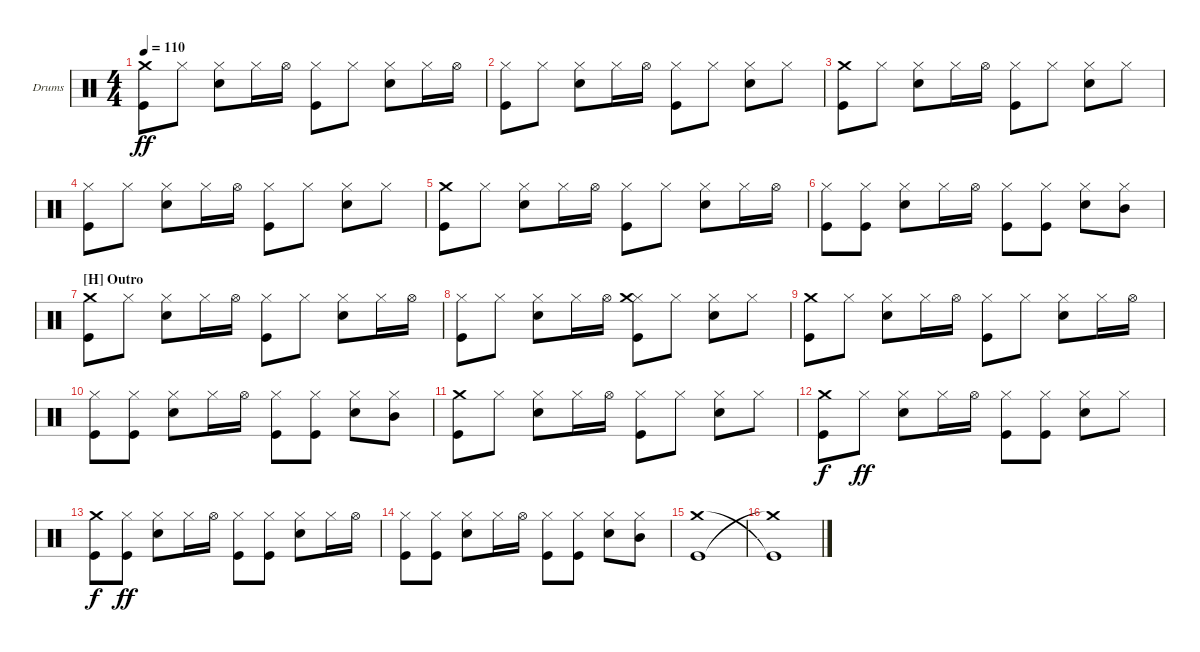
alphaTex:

\bracketExtendMode groupsimilarinstruments
\firstSystemTrackNameOrientation horizontal
\otherSystemsTrackNameOrientation horizontal
\track ("Drum Kit" "Drums") {instrument percussion}
\staff {score}
\articulation defaults
\ts (4 4)
\tempo 110
\clef neutral
\scale
0.333333
\ks c
("Crash medium (hit)" "Kick (hit)").8{dy ff} "Hi-Hat (closed)".8 ("Hi-Hat (closed)" "Snare (hit) 2").8 "Hi-Hat (closed)".16 "Hi-Hat (open)".16 ("Hi-Hat (closed)" "Kick (hit)").8 "Hi-Hat (closed)".8 ("Hi-Hat (closed)" "Snare (hit) 2").8 "Hi-Hat (closed)".16 "Hi-Hat (open)".16 |
\scale
0.333333 ("Hi-Hat (closed)" "Kick (hit)").8 "Hi-Hat (closed)".8 ("Hi-Hat (closed)" "Snare (hit) 2").8 "Hi-Hat (closed)".16 "Hi-Hat (open)".16 ("Hi-Hat (closed)" "Kick (hit)").8 "Hi-Hat (closed)".8 ("Hi-Hat (closed)" "Snare (hit) 2").8 "Hi-Hat (closed)".8 |
\scale
0.333333 ("Crash medium (hit)" "Kick (hit)").8 "Hi-Hat (closed)".8 ("Hi-Hat (closed)" "Snare (hit) 2").8 "Hi-Hat (closed)".16 "Hi-Hat (open)".16 ("Hi-Hat (closed)" "Kick (hit)").8 "Hi-Hat (closed)".8 ("Hi-Hat (closed)" "Snare (hit) 2").8 "Hi-Hat (closed)".8 |
\scale
0.333333 ("Hi-Hat (closed)" "Kick (hit)").8 "Hi-Hat (closed)".8 ("Hi-Hat (closed)" "Snare (hit) 2").8 "Hi-Hat (closed)".16 "Hi-Hat (open)".16 ("Hi-Hat (closed)" "Kick (hit)").8 "Hi-Hat (closed)".8 ("Hi-Hat (closed)" "Snare (hit) 2").8 "Hi-Hat (closed)".8 |
\scale
0.333333 ("Crash medium (hit)" "Kick (hit)").8 "Hi-Hat (closed)".8 ("Hi-Hat (closed)" "Snare (hit) 2").8 "Hi-Hat (closed)".16 "Hi-Hat (open)".16 ("Hi-Hat (closed)" "Kick (hit)").8 "Hi-Hat (closed)".8 ("Hi-Hat (closed)" "Snare (hit) 2").8 "Hi-Hat (closed)".16 "Hi-Hat (open)".16 |
\scale
0.333333 ("Hi-Hat (closed)" "Kick (hit)").8 ("Hi-Hat (closed)" "Kick (hit)").8 ("Hi-Hat (closed)" "Snare (hit) 2").8 "Hi-Hat (closed)".16 "Hi-Hat (open)".16 ("Hi-Hat (closed)" "Kick (hit)").8 ("Hi-Hat (closed)" "Kick (hit)").8 ("Hi-Hat (closed)" "Snare (hit) 2").8 ("Hi-Hat (closed)" "Mid Tom (hit)").8 |
\section ("H" "Outro")
\scale
0.333333 ("Crash medium (hit)" "Kick (hit)").8 "Hi-Hat (closed)".8 ("Hi-Hat (closed)" "Snare (hit) 2").8 "Hi-Hat (closed)".16 "Hi-Hat (open)".16 ("Hi-Hat (closed)" "Kick (hit)").8 "Hi-Hat (closed)".8 ("Hi-Hat (closed)" "Snare (hit) 2").8 "Hi-Hat (closed)".16 "Hi-Hat (open)".16 |
\scale
0.333333 ("Hi-Hat (closed)" "Kick (hit)").8 "Hi-Hat (closed)".8 ("Hi-Hat (closed)" "Snare (hit) 2").8 "Hi-Hat (closed)".16 "Hi-Hat (open)".16 ("Hi-Hat (closed)" "Crash medium (hit)" "Kick (hit)").8 "Hi-Hat (closed)".8 ("Hi-Hat (closed)" "Snare (hit) 2").8 "Hi-Hat (closed)".8 |
\scale
0.333333 ("Crash medium (hit)" "Kick (hit)").8 "Hi-Hat (closed)".8 ("Hi-Hat (closed)" "Snare (hit) 2").8 "Hi-Hat (closed)".16 "Hi-Hat (open)".16 ("Hi-Hat (closed)" "Kick (hit)").8 "Hi-Hat (closed)".8 ("Hi-Hat (closed)" "Snare (hit) 2").8 "Hi-Hat (closed)".16 "Hi-Hat (open)".16 |
\scale
0.333333 ("Hi-Hat (closed)" "Kick (hit)").8 ("Hi-Hat (closed)" "Kick (hit)").8 ("Hi-Hat (closed)" "Snare (hit) 2").8 "Hi-Hat (closed)".16 "Hi-Hat (open)".16 ("Hi-Hat (closed)" "Kick (hit)").8 ("Hi-Hat (closed)" "Kick (hit)").8 ("Hi-Hat (closed)" "Snare (hit) 2").8 ("Hi-Hat (closed)" "Mid Tom (hit)").8 |
\scale
0.333333 ("Crash medium (hit)" "Kick (hit)").8 "Hi-Hat (closed)".8 ("Hi-Hat (closed)" "Snare (hit) 2").8 "Hi-Hat (closed)".16 "Hi-Hat (open)".16 ("Hi-Hat (closed)" "Kick (hit)").8 "Hi-Hat (closed)".8 ("Hi-Hat (closed)" "Snare (hit) 2").8 "Hi-Hat (closed)".8 |
\scale
0.333333 ("Crash medium (hit)" "Kick (hit)").8{dy f} "Hi-Hat (closed)".8{dy ff} ("Hi-Hat (closed)" "Snare (hit) 2").8 "Hi-Hat (closed)".16 "Hi-Hat (open)".16 ("Hi-Hat (closed)" "Kick (hit)").8 ("Hi-Hat (closed)" "Kick (hit)").8 ("Hi-Hat (closed)" "Snare (hit) 2").8 "Hi-Hat (closed)".8 |
\scale
0.333333 ("Crash medium (hit)" "Kick (hit)").8{dy f} ("Hi-Hat (closed)" "Kick (hit)").8{dy ff} ("Hi-Hat (closed)" "Snare (hit) 2").8 "Hi-Hat (closed)".16 "Hi-Hat (open)".16 ("Hi-Hat (closed)" "Kick (hit)").8 ("Hi-Hat (closed)" "Kick (hit)").8 ("Hi-Hat (closed)" "Snare (hit) 2").8 "Hi-Hat (closed)".16 "Hi-Hat (open)".16 |
\scale
0.333333 ("Hi-Hat (closed)" "Kick (hit)").8 ("Hi-Hat (closed)" "Kick (hit)").8 ("Hi-Hat (closed)" "Snare (hit) 2").8 "Hi-Hat (closed)".16 "Hi-Hat (open)".16 ("Hi-Hat (closed)" "Kick (hit)").8 ("Hi-Hat (closed)" "Kick (hit)").8 ("Hi-Hat (closed)" "Snare (hit) 2").8 ("Hi-Hat (closed)" "Mid Tom (hit)").8 |
\scale
0.333333 ("Crash medium (hit)" "Kick (hit)").1 |
("Kick (hit)"{t} "Crash medium (hit)"{t}).1
